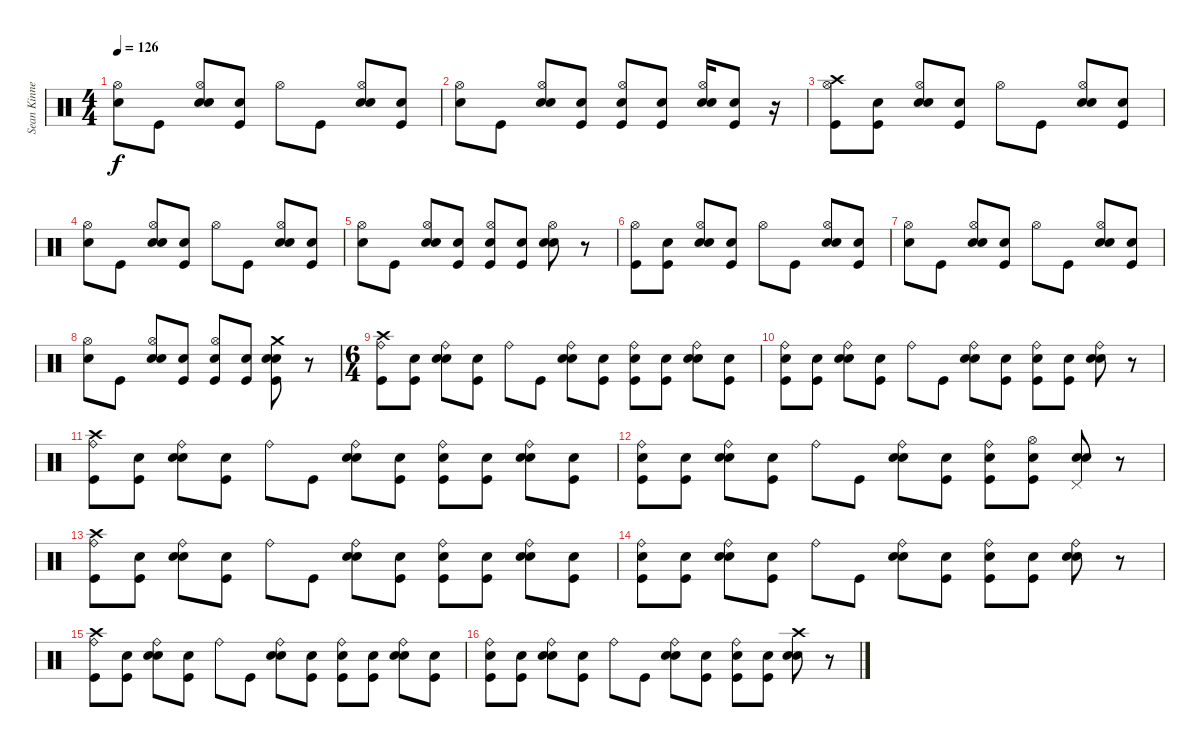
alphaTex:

\track ("Sean Kinney (Drums)" "Sean Kinne") {instrument percussion}
\staff {score}
\articulation defaults
\ts (4 4)
\tempo 126
\clef neutral
\ks c
("Snare (hit)" "Hi-Hat (open)").8{dy f} "Kick (hit)".8 ("Snare (hit)" "Electric Snare (hit)" "Hi-Hat (open)").8 ("Snare (hit)" "Kick (hit)").8 "Hi-Hat (open)".8 "Kick (hit)".8 ("Snare (hit)" "Hi-Hat (open)" "Electric Snare (hit)").8 ("Snare (hit)" "Kick (hit)").8 |
("Snare (hit)" "Hi-Hat (open)").8 "Kick (hit)".8 ("Snare (hit)" "Electric Snare (hit)" "Hi-Hat (open)").8 ("Snare (hit)" "Kick (hit)").8 ("Snare (hit)" "Kick (hit)" "Hi-Hat (open)").8 ("Snare (hit)" "Kick (hit)").8 ("Snare (hit)" "Hi-Hat (open)" "Electric Snare (hit)").16 ("Snare (hit)" "Kick (hit)").8 r.16 |
("Kick (hit)" "Hi-Hat (open)" "Crash high (hit)").8 ("Snare (hit)" "Kick (hit)").8 ("Snare (hit)" "Electric Snare (hit)" "Hi-Hat (open)").8 ("Snare (hit)" "Kick (hit)").8 "Hi-Hat (open)".8 "Kick (hit)".8 ("Snare (hit)" "Hi-Hat (open)" "Electric Snare (hit)").8 ("Snare (hit)" "Kick (hit)").8 |
("Snare (hit)" "Hi-Hat (open)").8 "Kick (hit)".8 ("Snare (hit)" "Electric Snare (hit)" "Hi-Hat (open)").8 ("Snare (hit)" "Kick (hit)").8 "Hi-Hat (open)".8 "Kick (hit)".8 ("Snare (hit)" "Electric Snare (hit)" "Hi-Hat (open)").8 ("Snare (hit)" "Kick (hit)").8 |
("Snare (hit)" "Hi-Hat (open)").8 "Kick (hit)".8 ("Snare (hit)" "Electric Snare (hit)" "Hi-Hat (open)").8 ("Snare (hit)" "Kick (hit)").8 ("Snare (hit)" "Hi-Hat (open)" "Kick (hit)").8 ("Snare (hit)" "Kick (hit)").8 ("Snare (hit)" "Hi-Hat (open)" "Electric Snare (hit)").8 r.8 |
("Kick (hit)" "Hi-Hat (open)").8 ("Snare (hit)" "Kick (hit)").8 ("Snare (hit)" "Electric Snare (hit)" "Hi-Hat (open)").8 ("Snare (hit)" "Kick (hit)").8 "Hi-Hat (open)".8 "Kick (hit)".8 ("Snare (hit)" "Hi-Hat (open)" "Electric Snare (hit)").8 ("Snare (hit)" "Kick (hit)").8 |
("Snare (hit)" "Hi-Hat (open)").8 "Kick (hit)".8 ("Snare (hit)" "Electric Snare (hit)" "Hi-Hat (open)").8 ("Snare (hit)" "Kick (hit)").8 "Hi-Hat (open)".8 "Kick (hit)".8 ("Snare (hit)" "Electric Snare (hit)" "Hi-Hat (open)").8 ("Snare (hit)" "Kick (hit)").8 |
("Snare (hit)" "Hi-Hat (open)").8 "Kick (hit)".8 ("Snare (hit)" "Electric Snare (hit)" "Hi-Hat (open)").8 ("Snare (hit)" "Kick (hit)").8 ("Snare (hit)" "Hi-Hat (open)" "Kick (hit)").8 ("Snare (hit)" "Kick (hit)").8 ("Snare (hit)" "Electric Snare (hit)" "Kick (hit)" "Crash medium (hit)").8 r.8 |
\ts (6 4)
("Ride (bell)" "Kick (hit)" "Crash high (hit)").8 ("Snare (hit)" "Kick (hit)").8 ("Snare (hit)" "Ride (bell)" "Electric Snare (hit)").8 ("Snare (hit)" "Kick (hit)").8 "Ride (bell)".8 "Kick (hit)".8 ("Snare (hit)" "Ride (bell)" "Electric Snare (hit)").8 ("Snare (hit)" "Kick (hit)").8 ("Snare (hit)" "Kick (hit)" "Ride (bell)").8 ("Snare (hit)" "Kick (hit)").8 ("Snare (hit)" "Ride (bell)" "Electric Snare (hit)").8 ("Snare (hit)" "Kick (hit)").8 |
("Snare (hit)" "Ride (bell)" "Kick (hit)").8 ("Snare (hit)" "Kick (hit)").8 ("Snare (hit)" "Electric Snare (hit)" "Ride (bell)").8 ("Snare (hit)" "Kick (hit)").8 "Ride (bell)".8 "Kick (hit)".8 ("Snare (hit)" "Ride (bell)" "Electric Snare (hit)").8 ("Snare (hit)" "Kick (hit)").8 ("Snare (hit)" "Kick (hit)" "Ride (bell)").8 ("Snare (hit)" "Kick (hit)").8 ("Snare (hit)" "Ride (bell)" "Electric Snare (hit)").8 r.8 |
("Ride (bell)" "Kick (hit)" "Crash high (hit)").8 ("Snare (hit)" "Kick (hit)").8 ("Snare (hit)" "Electric Snare (hit)" "Ride (bell)").8 ("Snare (hit)" "Kick (hit)").8 "Ride (bell)".8 "Kick (hit)".8 ("Snare (hit)" "Electric Snare (hit)" "Ride (bell)").8 ("Snare (hit)" "Kick (hit)").8 ("Snare (hit)" "Ride (bell)" "Kick (hit)").8 ("Snare (hit)" "Kick (hit)").8 ("Snare (hit)" "Electric Snare (hit)" "Ride (bell)").8 ("Snare (hit)" "Kick (hit)").8 |
("Snare (hit)" "Ride (bell)" "Kick (hit)").8 ("Snare (hit)" "Kick (hit)").8 ("Snare (hit)" "Electric Snare (hit)" "Ride (bell)").8 ("Snare (hit)" "Kick (hit)").8 "Ride (bell)".8 "Kick (hit)".8 ("Snare (hit)" "Electric Snare (hit)" "Ride (bell)").8 ("Snare (hit)" "Kick (hit)").8 ("Snare (hit)" "Kick (hit)" "Ride (bell)").8 ("Snare (hit)" "Kick (hit)" "Hi-Hat (open)").8 ("Snare (hit)" "Electric Snare (hit)" "Pedal Hi-Hat (hit)").8 r.8 |
("Ride (bell)" "Crash high (hit)" "Kick (hit)").8 ("Snare (hit)" "Kick (hit)").8 ("Snare (hit)" "Electric Snare (hit)" "Ride (bell)").8 ("Snare (hit)" "Kick (hit)").8 "Ride (bell)".8 "Kick (hit)".8 ("Snare (hit)" "Ride (bell)" "Electric Snare (hit)").8 ("Snare (hit)" "Kick (hit)").8 ("Snare (hit)" "Kick (hit)" "Ride (bell)").8 ("Snare (hit)" "Kick (hit)").8 ("Snare (hit)" "Ride (bell)" "Electric Snare (hit)").8 ("Snare (hit)" "Kick (hit)").8 |
("Snare (hit)" "Ride (bell)" "Kick (hit)").8 ("Snare (hit)" "Kick (hit)").8 ("Snare (hit)" "Electric Snare (hit)" "Ride (bell)").8 ("Snare (hit)" "Kick (hit)").8 "Ride (bell)".8 "Kick (hit)".8 ("Snare (hit)" "Ride (bell)" "Electric Snare (hit)").8 ("Snare (hit)" "Kick (hit)").8 ("Snare (hit)" "Kick (hit)" "Ride (bell)").8 ("Snare (hit)" "Kick (hit)").8 ("Snare (hit)" "Ride (bell)" "Electric Snare (hit)").8 r.8 |
("Kick (hit)" "Ride (bell)" "Crash high (hit)").8 ("Snare (hit)" "Kick (hit)").8 ("Snare (hit)" "Ride (bell)" "Electric Snare (hit)").8 ("Snare (hit)" "Kick (hit)").8 "Ride (bell)".8 "Kick (hit)".8 ("Snare (hit)" "Electric Snare (hit)" "Ride (bell)").8 ("Snare (hit)" "Kick (hit)").8 ("Snare (hit)" "Ride (bell)" "Kick (hit)").8 ("Snare (hit)" "Kick (hit)").8 ("Snare (hit)" "Ride (bell)" "Electric Snare (hit)").8 ("Snare (hit)" "Kick (hit)").8 |
("Snare (hit)" "Ride (bell)" "Kick (hit)").8 ("Snare (hit)" "Kick (hit)").8 ("Snare (hit)" "Electric Snare (hit)" "Ride (bell)").8 ("Snare (hit)" "Kick (hit)").8 "Ride (bell)".8 "Kick (hit)".8 ("Snare (hit)" "Electric Snare (hit)" "Ride (bell)").8 ("Snare (hit)" "Kick (hit)").8 ("Snare (hit)" "Kick (hit)" "Ride (bell)").8 ("Snare (hit)" "Kick (hit)").8 ("Snare (hit)" "Crash high (hit)" "Electric Snare (hit)").8 r.8
